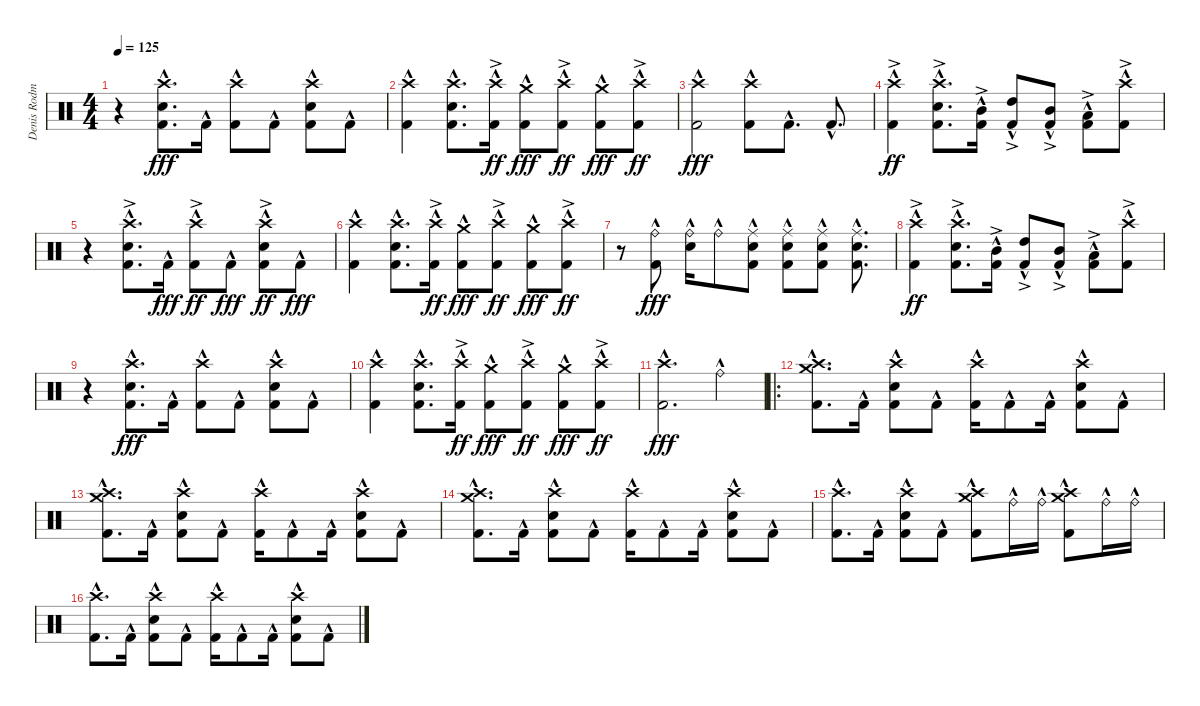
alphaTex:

\track ("Denis Rodman" "Denis Rodm") {instrument percussion}
\staff {score}
\articulation defaults
\ts (4 4)
\tempo 125
\clef neutral
\ks c
r.4{dy ff} ("Kick (hit) 2"{hac} "Snare (hit) 2" "Crash high (hit)").8{d dy fff} "Kick (hit) 2"{hac}.16 ("Kick (hit) 2"{hac} "Crash high (hit)").8 "Kick (hit) 2"{hac}.8 ("Kick (hit) 2"{hac} "Snare (hit) 2" "Crash high (hit)").8 "Kick (hit) 2"{hac}.8 |
("Kick (hit) 2"{hac} "Crash high (hit)"{hac}).4 ("Kick (hit) 2"{hac} "Snare (hit) 2" "Crash high (hit)"{hac}).8{d} ("Kick (hit) 2"{hac} "Crash high (hit)"{ac}).16{dy ff} ("Kick (hit) 2"{hac} "Crash medium (hit)"{hac}).8{dy fff} ("Kick (hit) 2"{hac} "Crash high (hit)"{ac}).8{dy ff} ("Kick (hit) 2"{hac} "Crash medium (hit)"{hac}).8{dy fff} ("Kick (hit) 2"{hac} "Crash high (hit)"{ac}).8{dy ff} |
("Kick (hit) 2"{hac} "Crash high (hit)").2{dy fff} ("Kick (hit) 2"{hac} "Crash high (hit)").8 "Kick (hit) 2"{hac}.8{d} "Kick (hit) 2"{hac}.8{d} |
("Kick (hit) 2"{hac} "Crash high (hit)"{ac}).4{dy ff} ("Kick (hit) 2"{hac} "Snare (hit) 2" "Crash high (hit)"{ac}).8{d} ("Kick (hit) 2"{hac} "Mid Tom (hit)"{ac}).16 ("Kick (hit) 2"{hac} "High Tom (hit)"{ac}).8 ("Kick (hit) 2"{hac} "Mid Tom (hit)"{ac}).8 ("Kick (hit) 2"{hac} "Low Tom (hit)"{ac}).8 ("Kick (hit) 2"{hac} "Crash high (hit)"{ac}).8 |
r.4 ("Kick (hit) 2"{hac} "Snare (hit) 2" "Crash high (hit)"{ac}).8{d} "Kick (hit) 2"{hac}.16{dy fff} ("Kick (hit) 2"{hac} "Crash high (hit)"{ac}).8{dy ff} "Kick (hit) 2"{hac}.8{dy fff} ("Kick (hit) 2"{hac} "Snare (hit) 2" "Crash high (hit)"{ac}).8{dy ff} "Kick (hit) 2"{hac}.8{dy fff} |
("Kick (hit) 2"{hac} "Crash high (hit)"{hac}).4 ("Kick (hit) 2"{hac} "Snare (hit) 2" "Crash high (hit)"{hac}).8{d} ("Kick (hit) 2"{hac} "Crash high (hit)"{ac}).16{dy ff} ("Kick (hit) 2"{hac} "Crash medium (hit)"{hac}).8{dy fff} ("Kick (hit) 2"{hac} "Crash high (hit)"{ac}).8{dy ff} ("Kick (hit) 2"{hac} "Crash medium (hit)"{hac}).8{dy fff} ("Kick (hit) 2"{hac} "Crash high (hit)"{ac}).8{dy ff} |
r.8 ("Ride (bell)"{hac} "Kick (hit) 2"{hac}).8{dy fff} ("Ride (bell)"{hac} "Snare (hit) 2").16 "Ride (bell)"{hac}.8 ("Kick (hit) 2"{hac} "Snare (hit) 2" "Ride (middle)"{hac}).8 ("Kick (hit) 2"{hac} "Snare (hit) 2" "Ride (middle)"{hac}).8 ("Kick (hit) 2"{hac} "Snare (hit) 2" "Ride (middle)"{hac}).8 ("Kick (hit) 2"{hac} "Snare (hit) 2" "Ride (middle)"{hac}).8{d} |
("Kick (hit) 2"{hac} "Crash high (hit)"{ac}).4{dy ff} ("Kick (hit) 2"{hac} "Snare (hit) 2" "Crash high (hit)"{ac}).8{d} ("Kick (hit) 2"{hac} "Mid Tom (hit)"{ac}).16 ("Kick (hit) 2"{hac} "High Tom (hit)"{ac}).8 ("Kick (hit) 2"{hac} "Mid Tom (hit)"{ac}).8 ("Kick (hit) 2"{hac} "Low Tom (hit)"{ac}).8 ("Kick (hit) 2"{hac} "Crash high (hit)"{ac}).8 |
r.4 ("Kick (hit) 2"{hac} "Snare (hit) 2" "Crash high (hit)").8{d dy fff} "Kick (hit) 2"{hac}.16 ("Kick (hit) 2"{hac} "Crash high (hit)").8 "Kick (hit) 2"{hac}.8 ("Kick (hit) 2"{hac} "Snare (hit) 2" "Crash high (hit)").8 "Kick (hit) 2"{hac}.8 |
("Kick (hit) 2"{hac} "Crash high (hit)"{hac}).4 ("Kick (hit) 2"{hac} "Snare (hit) 2" "Crash high (hit)"{hac}).8{d} ("Kick (hit) 2"{hac} "Crash high (hit)"{ac}).16{dy ff} ("Kick (hit) 2"{hac} "Crash medium (hit)"{hac}).8{dy fff} ("Kick (hit) 2"{hac} "Crash high (hit)"{ac}).8{dy ff} ("Kick (hit) 2"{hac} "Crash medium (hit)"{hac}).8{dy fff} ("Kick (hit) 2"{hac} "Crash high (hit)"{ac}).8{dy ff} |
("Kick (hit) 2"{hac} "Crash high (hit)").2{d dy fff} "Ride (bell)"{hac}.4 |
\ro
("Kick (hit) 2"{hac} "Crash high (hit)" "Crash medium (hit)").8{d} "Kick (hit) 2"{hac}.16 ("Kick (hit) 2"{hac} "Snare (hit) 2" "Crash high (hit)").8 "Kick (hit) 2"{hac}.8 ("Kick (hit) 2"{hac} "Crash high (hit)").16 "Kick (hit) 2"{hac}.8 "Kick (hit) 2"{hac}.16 ("Kick (hit) 2"{hac} "Snare (hit) 2" "Crash high (hit)").8 "Kick (hit) 2"{hac}.8 |
("Kick (hit) 2"{hac} "Crash high (hit)" "Crash medium (hit)").8{d} "Kick (hit) 2"{hac}.16 ("Kick (hit) 2"{hac} "Snare (hit) 2" "Crash high (hit)").8 "Kick (hit) 2"{hac}.8 ("Kick (hit) 2"{hac} "Crash high (hit)").16 "Kick (hit) 2"{hac}.8 "Kick (hit) 2"{hac}.16 ("Kick (hit) 2"{hac} "Snare (hit) 2" "Crash high (hit)").8 "Kick (hit) 2"{hac}.8 |
("Kick (hit) 2"{hac} "Crash high (hit)" "Crash medium (hit)").8{d} "Kick (hit) 2"{hac}.16 ("Kick (hit) 2"{hac} "Snare (hit) 2" "Crash high (hit)").8 "Kick (hit) 2"{hac}.8 ("Kick (hit) 2"{hac} "Crash high (hit)").16 "Kick (hit) 2"{hac}.8 "Kick (hit) 2"{hac}.16 ("Kick (hit) 2"{hac} "Snare (hit) 2" "Crash high (hit)").8 "Kick (hit) 2"{hac}.8 |
("Kick (hit) 2"{hac} "Crash high (hit)").8{d} "Kick (hit) 2"{hac}.16 ("Kick (hit) 2"{hac} "Snare (hit) 2" "Crash high (hit)").8 "Kick (hit) 2"{hac}.8 ("Crash high (hit)" "Crash medium (hit)" "Kick (hit) 2"{hac}).8 "Ride (bell)"{hac}.16 "Ride (bell)"{hac}.16 ("Crash high (hit)" "Crash medium (hit)" "Kick (hit) 2"{hac}).8 "Ride (bell)"{hac}.16 "Ride (bell)"{hac}.16 |
("Kick (hit) 2"{hac} "Crash high (hit)").8{d} "Kick (hit) 2"{hac}.16 ("Kick (hit) 2"{hac} "Snare (hit) 2" "Crash high (hit)").8 "Kick (hit) 2"{hac}.8 ("Kick (hit) 2"{hac} "Crash high (hit)").16 "Kick (hit) 2"{hac}.8 "Kick (hit) 2"{hac}.16 ("Kick (hit) 2"{hac} "Snare (hit) 2" "Crash high (hit)").8 "Kick (hit) 2"{hac}.8
